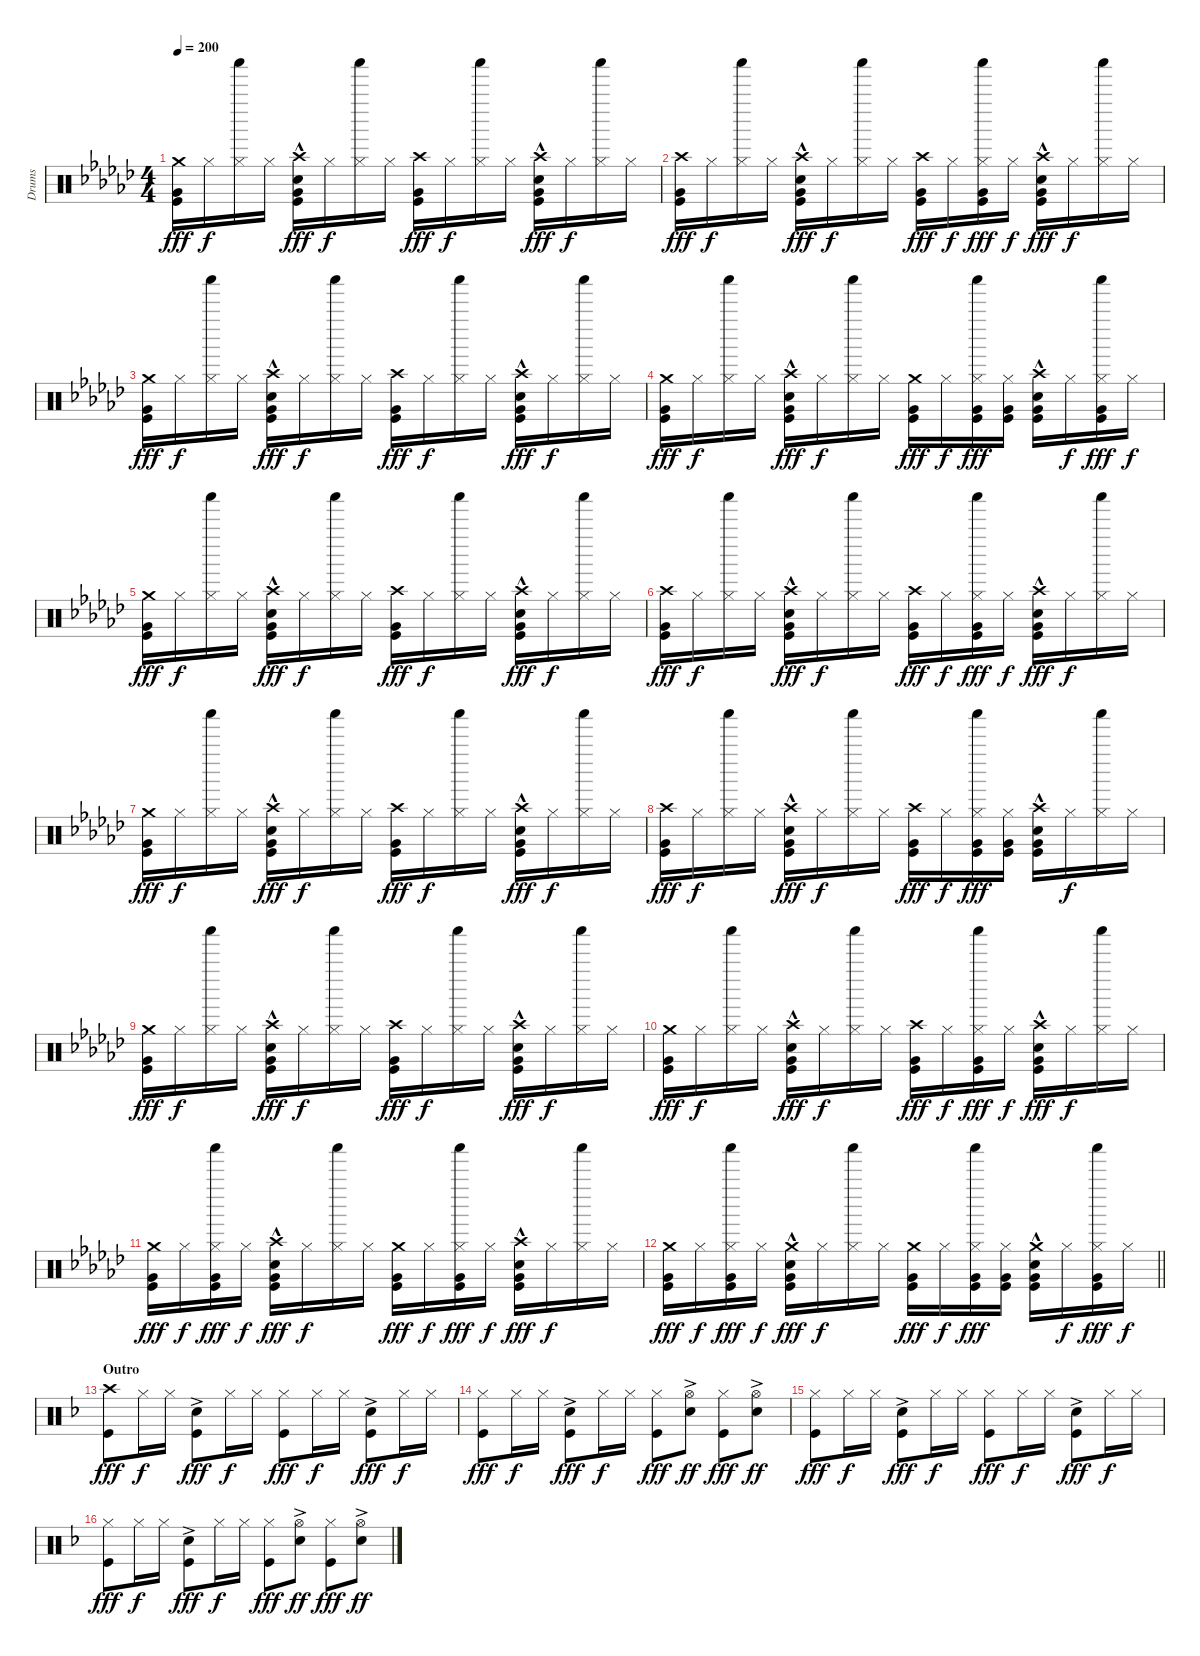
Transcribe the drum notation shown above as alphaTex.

\track ("Drums" "Drums") {instrument percussion bank 25}
\staff {score}
\articulation defaults
\ts (4 4)
\tempo 200
\clef neutral
\ks ebminor
("Crash medium (hit)" "Very Low Tom (hit)" "Kick (hit)").16{dy fff} "Hi-Hat (closed)".16{dy f} ("Shaker (hit)" "Hi-Hat (closed)").16 "Hi-Hat (closed)".16 ("Crash high (hit)" "Snare (hit) 2"{hac} "Very Low Tom (hit)" "Kick (hit)").16{dy fff} "Hi-Hat (closed)".16{dy f} ("Shaker (hit)" "Hi-Hat (closed)").16 "Hi-Hat (closed)".16 ("Crash high (hit)" "Very Low Tom (hit)" "Kick (hit)").16{dy fff} "Hi-Hat (closed)".16{dy f} ("Shaker (hit)" "Hi-Hat (closed)").16 "Hi-Hat (closed)".16 ("Crash high (hit)" "Snare (hit) 2"{hac} "Very Low Tom (hit)" "Kick (hit)").16{dy fff} "Hi-Hat (closed)".16{dy f} ("Shaker (hit)" "Hi-Hat (closed)").16 "Hi-Hat (closed)".16 |
("Crash high (hit)" "Very Low Tom (hit)" "Kick (hit)").16{dy fff} "Hi-Hat (closed)".16{dy f} ("Shaker (hit)" "Hi-Hat (closed)").16 "Hi-Hat (closed)".16 ("Crash high (hit)" "Snare (hit) 2"{hac} "Very Low Tom (hit)" "Kick (hit)").16{dy fff} "Hi-Hat (closed)".16{dy f} ("Shaker (hit)" "Hi-Hat (closed)").16 "Hi-Hat (closed)".16 ("Crash high (hit)" "Very Low Tom (hit)" "Kick (hit)").16{dy fff} "Hi-Hat (closed)".16{dy f} ("Shaker (hit)" "Hi-Hat (closed)" "Very Low Tom (hit)" "Kick (hit)").16{dy fff} "Hi-Hat (closed)".16{dy f} ("Crash high (hit)" "Snare (hit) 2"{hac} "Very Low Tom (hit)" "Kick (hit)").16{dy fff} "Hi-Hat (closed)".16{dy f} ("Shaker (hit)" "Hi-Hat (closed)").16 "Hi-Hat (closed)".16 |
("Crash medium (hit)" "Very Low Tom (hit)" "Kick (hit)").16{dy fff} "Hi-Hat (closed)".16{dy f} ("Shaker (hit)" "Hi-Hat (closed)").16 "Hi-Hat (closed)".16 ("Crash high (hit)" "Snare (hit) 2"{hac} "Very Low Tom (hit)" "Kick (hit)").16{dy fff} "Hi-Hat (closed)".16{dy f} ("Shaker (hit)" "Hi-Hat (closed)").16 "Hi-Hat (closed)".16 ("Crash high (hit)" "Very Low Tom (hit)" "Kick (hit)").16{dy fff} "Hi-Hat (closed)".16{dy f} ("Shaker (hit)" "Hi-Hat (closed)").16 "Hi-Hat (closed)".16 ("Crash high (hit)" "Snare (hit) 2"{hac} "Very Low Tom (hit)" "Kick (hit)").16{dy fff} "Hi-Hat (closed)".16{dy f} ("Shaker (hit)" "Hi-Hat (closed)").16 "Hi-Hat (closed)".16 |
("Crash medium (hit)" "Very Low Tom (hit)" "Kick (hit)").16{dy fff} "Hi-Hat (closed)".16{dy f} ("Shaker (hit)" "Hi-Hat (closed)").16 "Hi-Hat (closed)".16 ("Crash high (hit)" "Snare (hit) 2"{hac} "Very Low Tom (hit)" "Kick (hit)").16{dy fff} "Hi-Hat (closed)".16{dy f} ("Shaker (hit)" "Hi-Hat (closed)").16 "Hi-Hat (closed)".16 ("Crash medium (hit)" "Very Low Tom (hit)" "Kick (hit)").16{dy fff} "Hi-Hat (closed)".16{dy f} ("Shaker (hit)" "Hi-Hat (closed)" "Very Low Tom (hit)" "Kick (hit)").16{dy fff} ("Hi-Hat (closed)" "Very Low Tom (hit)" "Kick (hit)").16 ("Crash high (hit)" "Snare (hit) 2"{hac} "Very Low Tom (hit)" "Kick (hit)").16 "Hi-Hat (closed)".16{dy f} ("Shaker (hit)" "Hi-Hat (closed)" "Very Low Tom (hit)" "Kick (hit)").16{dy fff} "Hi-Hat (closed)".16{dy f} |
("Crash medium (hit)" "Very Low Tom (hit)" "Kick (hit)").16{dy fff} "Hi-Hat (closed)".16{dy f} ("Shaker (hit)" "Hi-Hat (closed)").16 "Hi-Hat (closed)".16 ("Crash high (hit)" "Snare (hit) 2"{hac} "Very Low Tom (hit)" "Kick (hit)").16{dy fff} "Hi-Hat (closed)".16{dy f} ("Shaker (hit)" "Hi-Hat (closed)").16 "Hi-Hat (closed)".16 ("Crash high (hit)" "Very Low Tom (hit)" "Kick (hit)").16{dy fff} "Hi-Hat (closed)".16{dy f} ("Shaker (hit)" "Hi-Hat (closed)").16 "Hi-Hat (closed)".16 ("Crash high (hit)" "Snare (hit) 2"{hac} "Very Low Tom (hit)" "Kick (hit)").16{dy fff} "Hi-Hat (closed)".16{dy f} ("Shaker (hit)" "Hi-Hat (closed)").16 "Hi-Hat (closed)".16 |
("Crash high (hit)" "Very Low Tom (hit)" "Kick (hit)").16{dy fff} "Hi-Hat (closed)".16{dy f} ("Shaker (hit)" "Hi-Hat (closed)").16 "Hi-Hat (closed)".16 ("Crash high (hit)" "Snare (hit) 2"{hac} "Very Low Tom (hit)" "Kick (hit)").16{dy fff} "Hi-Hat (closed)".16{dy f} ("Shaker (hit)" "Hi-Hat (closed)").16 "Hi-Hat (closed)".16 ("Crash high (hit)" "Very Low Tom (hit)" "Kick (hit)").16{dy fff} "Hi-Hat (closed)".16{dy f} ("Shaker (hit)" "Hi-Hat (closed)" "Very Low Tom (hit)" "Kick (hit)").16{dy fff} "Hi-Hat (closed)".16{dy f} ("Crash high (hit)" "Snare (hit) 2"{hac} "Very Low Tom (hit)" "Kick (hit)").16{dy fff} "Hi-Hat (closed)".16{dy f} ("Shaker (hit)" "Hi-Hat (closed)").16 "Hi-Hat (closed)".16 |
("Crash medium (hit)" "Very Low Tom (hit)" "Kick (hit)").16{dy fff} "Hi-Hat (closed)".16{dy f} ("Shaker (hit)" "Hi-Hat (closed)").16 "Hi-Hat (closed)".16 ("Crash high (hit)" "Snare (hit) 2"{hac} "Very Low Tom (hit)" "Kick (hit)").16{dy fff} "Hi-Hat (closed)".16{dy f} ("Shaker (hit)" "Hi-Hat (closed)").16 "Hi-Hat (closed)".16 ("Crash high (hit)" "Very Low Tom (hit)" "Kick (hit)").16{dy fff} "Hi-Hat (closed)".16{dy f} ("Shaker (hit)" "Hi-Hat (closed)").16 "Hi-Hat (closed)".16 ("Crash high (hit)" "Snare (hit) 2"{hac} "Very Low Tom (hit)" "Kick (hit)").16{dy fff} "Hi-Hat (closed)".16{dy f} ("Shaker (hit)" "Hi-Hat (closed)").16 "Hi-Hat (closed)".16 |
("Crash high (hit)" "Very Low Tom (hit)" "Kick (hit)").16{dy fff} "Hi-Hat (closed)".16{dy f} ("Shaker (hit)" "Hi-Hat (closed)").16 "Hi-Hat (closed)".16 ("Crash high (hit)" "Snare (hit) 2"{hac} "Very Low Tom (hit)" "Kick (hit)").16{dy fff} "Hi-Hat (closed)".16{dy f} ("Shaker (hit)" "Hi-Hat (closed)").16 "Hi-Hat (closed)".16 ("Crash high (hit)" "Very Low Tom (hit)" "Kick (hit)").16{dy fff} "Hi-Hat (closed)".16{dy f} ("Shaker (hit)" "Hi-Hat (closed)" "Very Low Tom (hit)" "Kick (hit)").16{dy fff} ("Hi-Hat (closed)" "Very Low Tom (hit)" "Kick (hit)").16 ("Crash high (hit)" "Snare (hit) 2"{hac} "Very Low Tom (hit)" "Kick (hit)").16 "Hi-Hat (closed)".16{dy f} ("Shaker (hit)" "Hi-Hat (closed)").16 "Hi-Hat (closed)".16 |
("Crash medium (hit)" "Very Low Tom (hit)" "Kick (hit)").16{dy fff} "Hi-Hat (closed)".16{dy f} ("Shaker (hit)" "Hi-Hat (closed)").16 "Hi-Hat (closed)".16 ("Crash high (hit)" "Snare (hit) 2"{hac} "Very Low Tom (hit)" "Kick (hit)").16{dy fff} "Hi-Hat (closed)".16{dy f} ("Shaker (hit)" "Hi-Hat (closed)").16 "Hi-Hat (closed)".16 ("Crash high (hit)" "Very Low Tom (hit)" "Kick (hit)").16{dy fff} "Hi-Hat (closed)".16{dy f} ("Shaker (hit)" "Hi-Hat (closed)").16 "Hi-Hat (closed)".16 ("Crash high (hit)" "Snare (hit) 2"{hac} "Very Low Tom (hit)" "Kick (hit)").16{dy fff} "Hi-Hat (closed)".16{dy f} ("Shaker (hit)" "Hi-Hat (closed)").16 "Hi-Hat (closed)".16 |
("Crash medium (hit)" "Very Low Tom (hit)" "Kick (hit)").16{dy fff} "Hi-Hat (closed)".16{dy f} ("Shaker (hit)" "Hi-Hat (closed)").16 "Hi-Hat (closed)".16 ("Crash high (hit)" "Snare (hit) 2"{hac} "Very Low Tom (hit)" "Kick (hit)").16{dy fff} "Hi-Hat (closed)".16{dy f} ("Shaker (hit)" "Hi-Hat (closed)").16 "Hi-Hat (closed)".16 ("Crash high (hit)" "Very Low Tom (hit)" "Kick (hit)").16{dy fff} "Hi-Hat (closed)".16{dy f} ("Shaker (hit)" "Hi-Hat (closed)" "Very Low Tom (hit)" "Kick (hit)").16{dy fff} "Hi-Hat (closed)".16{dy f} ("Crash high (hit)" "Snare (hit) 2"{hac} "Very Low Tom (hit)" "Kick (hit)").16{dy fff} "Hi-Hat (closed)".16{dy f} ("Shaker (hit)" "Hi-Hat (closed)").16 "Hi-Hat (closed)".16 |
("Crash medium (hit)" "Very Low Tom (hit)" "Kick (hit)").16{dy fff} "Hi-Hat (closed)".16{dy f} ("Shaker (hit)" "Hi-Hat (closed)" "Very Low Tom (hit)" "Kick (hit)").16{dy fff} "Hi-Hat (closed)".16{dy f} ("Crash high (hit)" "Snare (hit) 2"{hac} "Very Low Tom (hit)" "Kick (hit)").16{dy fff} "Hi-Hat (closed)".16{dy f} ("Shaker (hit)" "Hi-Hat (closed)").16 "Hi-Hat (closed)".16 ("Crash medium (hit)" "Very Low Tom (hit)" "Kick (hit)").16{dy fff} "Hi-Hat (closed)".16{dy f} ("Shaker (hit)" "Hi-Hat (closed)" "Very Low Tom (hit)" "Kick (hit)").16{dy fff} "Hi-Hat (closed)".16{dy f} ("Crash high (hit)" "Snare (hit) 2"{hac} "Very Low Tom (hit)" "Kick (hit)").16{dy fff} "Hi-Hat (closed)".16{dy f} ("Shaker (hit)" "Hi-Hat (closed)").16 "Hi-Hat (closed)".16 |
\barLineRight lightlight
("Crash medium (hit)" "Very Low Tom (hit)" "Kick (hit)").16{dy fff} "Hi-Hat (closed)".16{dy f} ("Shaker (hit)" "Hi-Hat (closed)" "Very Low Tom (hit)" "Kick (hit)").16{dy fff} "Hi-Hat (closed)".16{dy f} ("Crash medium (hit)" "Snare (hit) 2"{hac} "Very Low Tom (hit)" "Kick (hit)").16{dy fff} "Hi-Hat (closed)".16{dy f} ("Shaker (hit)" "Hi-Hat (closed)").16 "Hi-Hat (closed)".16 ("Crash medium (hit)" "Very Low Tom (hit)" "Kick (hit)").16{dy fff} "Hi-Hat (closed)".16{dy f} ("Shaker (hit)" "Hi-Hat (closed)" "Very Low Tom (hit)" "Kick (hit)").16{dy fff} ("Hi-Hat (closed)" "Very Low Tom (hit)" "Kick (hit)").16 ("Crash medium (hit)" "Snare (hit) 2"{hac} "Very Low Tom (hit)" "Kick (hit)").16 "Hi-Hat (closed)".16{dy f} ("Shaker (hit)" "Hi-Hat (closed)" "Very Low Tom (hit)" "Kick (hit)").16{dy fff} "Hi-Hat (closed)".16{dy f} |
\section ("" "Outro")
\ks dminor
("Crash high (hit)" "Kick (hit)").8{dy fff} "Hi-Hat (closed)".16{dy f} "Hi-Hat (closed)".16 ("Snare (hit) 2"{ac} "Kick (hit)").8{dy fff} "Hi-Hat (closed)".16{dy f} "Hi-Hat (closed)".16 ("Hi-Hat (closed)" "Kick (hit)").8{dy fff} "Hi-Hat (closed)".16{dy f} "Hi-Hat (closed)".16 ("Snare (hit) 2"{ac} "Kick (hit)").8{dy fff} "Hi-Hat (closed)".16{dy f} "Hi-Hat (closed)".16 |
("Hi-Hat (closed)" "Kick (hit)").8{dy fff} "Hi-Hat (closed)".16{dy f} "Hi-Hat (closed)".16 ("Snare (hit) 2"{ac} "Kick (hit)").8{dy fff} "Hi-Hat (closed)".16{dy f} "Hi-Hat (closed)".16 ("Hi-Hat (closed)" "Kick (hit)").8{dy fff} ("Hi-Hat (open)" "Snare (hit) 2"{ac}).8{dy ff} ("Hi-Hat (closed)" "Kick (hit)").8{dy fff} ("Hi-Hat (open)" "Snare (hit) 2"{ac}).8{dy ff} |
("Hi-Hat (closed)" "Kick (hit)").8{dy fff} "Hi-Hat (closed)".16{dy f} "Hi-Hat (closed)".16 ("Snare (hit) 2"{ac} "Kick (hit)").8{dy fff} "Hi-Hat (closed)".16{dy f} "Hi-Hat (closed)".16 ("Hi-Hat (closed)" "Kick (hit)").8{dy fff} "Hi-Hat (closed)".16{dy f} "Hi-Hat (closed)".16 ("Snare (hit) 2"{ac} "Kick (hit)").8{dy fff} "Hi-Hat (closed)".16{dy f} "Hi-Hat (closed)".16 |
("Hi-Hat (closed)" "Kick (hit)").8{dy fff} "Hi-Hat (closed)".16{dy f} "Hi-Hat (closed)".16 ("Snare (hit) 2"{ac} "Kick (hit)").8{dy fff} "Hi-Hat (closed)".16{dy f} "Hi-Hat (closed)".16 ("Hi-Hat (closed)" "Kick (hit)").8{dy fff} ("Hi-Hat (open)" "Snare (hit) 2"{ac}).8{dy ff} ("Hi-Hat (closed)" "Kick (hit)").8{dy fff} ("Hi-Hat (open)" "Snare (hit) 2"{ac}).8{dy ff}
